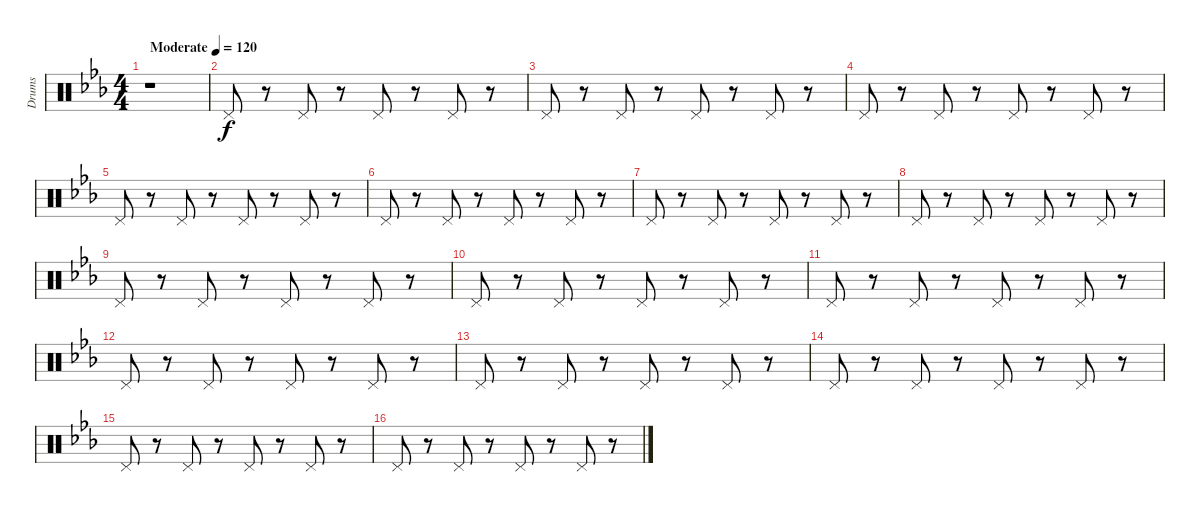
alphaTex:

\track ("Drums" "Drums") {instrument percussion}
\staff {score}
\articulation defaults
\ts (4 4)
\tempo (120 "Moderate")
\clef neutral
\ks cminor
r.1{dy f} |
"Pedal Hi-Hat (hit)".8 r.8 "Pedal Hi-Hat (hit)".8 r.8 "Pedal Hi-Hat (hit)".8 r.8 "Pedal Hi-Hat (hit)".8 r.8 |
"Pedal Hi-Hat (hit)".8 r.8 "Pedal Hi-Hat (hit)".8 r.8 "Pedal Hi-Hat (hit)".8 r.8 "Pedal Hi-Hat (hit)".8 r.8 |
"Pedal Hi-Hat (hit)".8 r.8 "Pedal Hi-Hat (hit)".8 r.8 "Pedal Hi-Hat (hit)".8 r.8 "Pedal Hi-Hat (hit)".8 r.8 |
"Pedal Hi-Hat (hit)".8 r.8 "Pedal Hi-Hat (hit)".8 r.8 "Pedal Hi-Hat (hit)".8 r.8 "Pedal Hi-Hat (hit)".8 r.8 |
"Pedal Hi-Hat (hit)".8 r.8 "Pedal Hi-Hat (hit)".8 r.8 "Pedal Hi-Hat (hit)".8 r.8 "Pedal Hi-Hat (hit)".8 r.8 |
"Pedal Hi-Hat (hit)".8 r.8 "Pedal Hi-Hat (hit)".8 r.8 "Pedal Hi-Hat (hit)".8 r.8 "Pedal Hi-Hat (hit)".8 r.8 |
"Pedal Hi-Hat (hit)".8 r.8 "Pedal Hi-Hat (hit)".8 r.8 "Pedal Hi-Hat (hit)".8 r.8 "Pedal Hi-Hat (hit)".8 r.8 |
"Pedal Hi-Hat (hit)".8 r.8 "Pedal Hi-Hat (hit)".8 r.8 "Pedal Hi-Hat (hit)".8 r.8 "Pedal Hi-Hat (hit)".8 r.8 |
"Pedal Hi-Hat (hit)".8 r.8 "Pedal Hi-Hat (hit)".8 r.8 "Pedal Hi-Hat (hit)".8 r.8 "Pedal Hi-Hat (hit)".8 r.8 |
"Pedal Hi-Hat (hit)".8 r.8 "Pedal Hi-Hat (hit)".8 r.8 "Pedal Hi-Hat (hit)".8 r.8 "Pedal Hi-Hat (hit)".8 r.8 |
"Pedal Hi-Hat (hit)".8 r.8 "Pedal Hi-Hat (hit)".8 r.8 "Pedal Hi-Hat (hit)".8 r.8 "Pedal Hi-Hat (hit)".8 r.8 |
"Pedal Hi-Hat (hit)".8 r.8 "Pedal Hi-Hat (hit)".8 r.8 "Pedal Hi-Hat (hit)".8 r.8 "Pedal Hi-Hat (hit)".8 r.8 |
"Pedal Hi-Hat (hit)".8 r.8 "Pedal Hi-Hat (hit)".8 r.8 "Pedal Hi-Hat (hit)".8 r.8 "Pedal Hi-Hat (hit)".8 r.8 |
"Pedal Hi-Hat (hit)".8 r.8 "Pedal Hi-Hat (hit)".8 r.8 "Pedal Hi-Hat (hit)".8 r.8 "Pedal Hi-Hat (hit)".8 r.8 |
"Pedal Hi-Hat (hit)".8 r.8 "Pedal Hi-Hat (hit)".8 r.8 "Pedal Hi-Hat (hit)".8 r.8 "Pedal Hi-Hat (hit)".8 r.8
